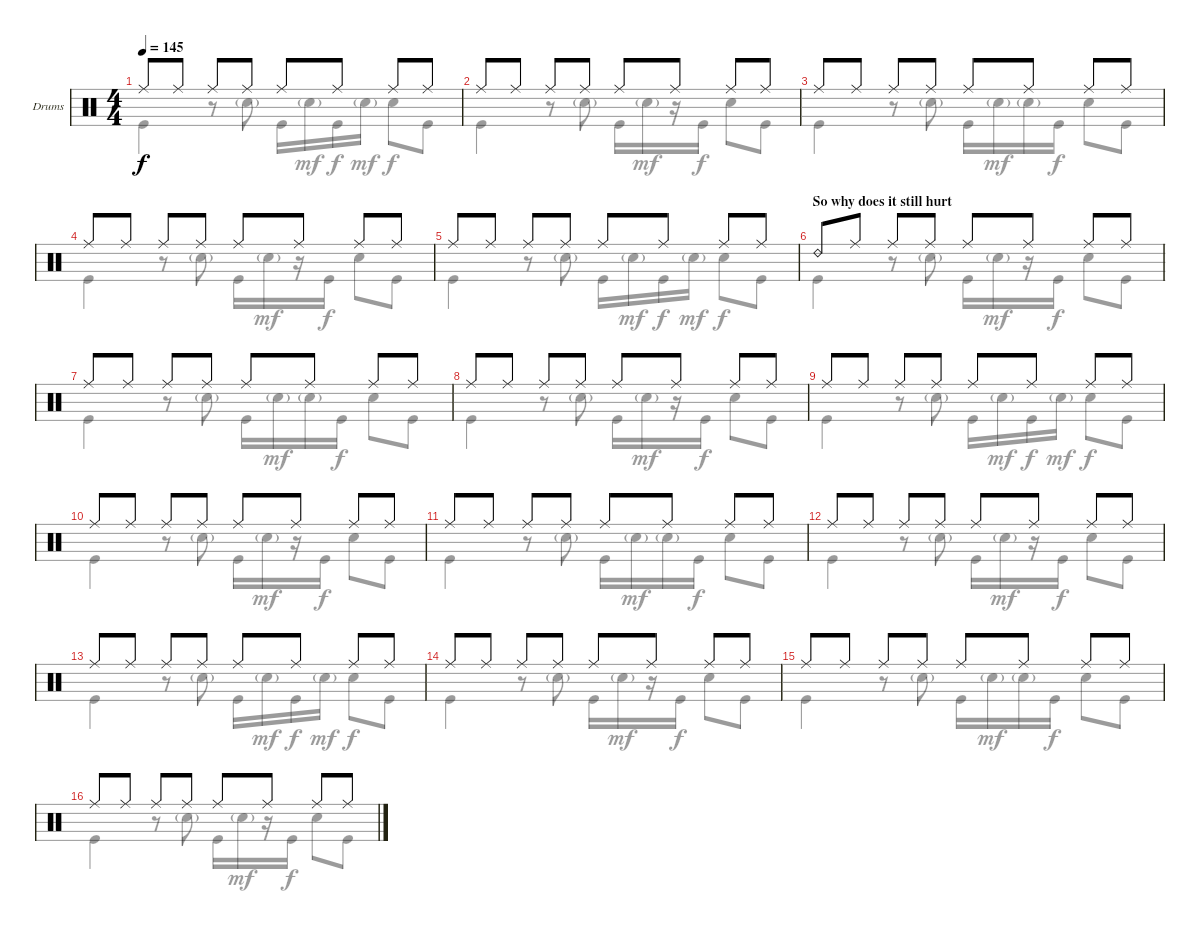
\defaultSystemsLayout 4
\bracketExtendMode groupsimilarinstruments
\firstSystemTrackNameOrientation horizontal
\otherSystemsTrackNameOrientation horizontal
\track ("Drumkit" "Drums") {instrument percussion}
\staff {score}
\articulation defaults
\voice
\ts (4 4)
\tempo 145
\clef neutral
\ks c "Ride (middle)".8{dy f} "Ride (middle)".8 "Ride (middle)".8 "Ride (middle)".8 "Ride (middle)".8 "Ride (middle)".8 "Ride (middle)".8 "Ride (middle)".8
|
"Ride (middle)".8 "Ride (middle)".8 "Ride (middle)".8 "Ride (middle)".8 "Ride (middle)".8 "Ride (middle)".8 "Ride (middle)".8 "Ride (middle)".8 |
"Ride (middle)".8 "Ride (middle)".8 "Ride (middle)".8 "Ride (middle)".8 "Ride (middle)".8 "Ride (middle)".8 "Ride (middle)".8 "Ride (middle)".8 |
"Ride (middle)".8 "Ride (middle)".8 "Ride (middle)".8 "Ride (middle)".8 "Ride (middle)".8 "Ride (middle)".8 "Ride (middle)".8 "Ride (middle)".8 |
"Ride (middle)".8 "Ride (middle)".8 "Ride (middle)".8 "Ride (middle)".8 "Ride (middle)".8 "Ride (middle)".8 "Ride (middle)".8 "Ride (middle)".8 |
\section ("" "So why does it still hurt")
"Ride (bell) 2".8 "Ride (middle)".8 "Ride (middle)".8 "Ride (middle)".8 "Ride (middle)".8 "Ride (middle)".8 "Ride (middle)".8 "Ride (middle)".8 |
"Ride (middle)".8 "Ride (middle)".8 "Ride (middle)".8 "Ride (middle)".8 "Ride (middle)".8 "Ride (middle)".8 "Ride (middle)".8 "Ride (middle)".8 |
"Ride (middle)".8 "Ride (middle)".8 "Ride (middle)".8 "Ride (middle)".8 "Ride (middle)".8 "Ride (middle)".8 "Ride (middle)".8 "Ride (middle)".8 |
"Ride (middle)".8 "Ride (middle)".8 "Ride (middle)".8 "Ride (middle)".8 "Ride (middle)".8 "Ride (middle)".8 "Ride (middle)".8 "Ride (middle)".8 |
"Ride (middle)".8 "Ride (middle)".8 "Ride (middle)".8 "Ride (middle)".8 "Ride (middle)".8 "Ride (middle)".8 "Ride (middle)".8 "Ride (middle)".8 |
"Ride (middle)".8 "Ride (middle)".8 "Ride (middle)".8 "Ride (middle)".8 "Ride (middle)".8 "Ride (middle)".8 "Ride (middle)".8 "Ride (middle)".8 |
"Ride (middle)".8 "Ride (middle)".8 "Ride (middle)".8 "Ride (middle)".8 "Ride (middle)".8 "Ride (middle)".8 "Ride (middle)".8 "Ride (middle)".8 |
"Ride (middle)".8 "Ride (middle)".8 "Ride (middle)".8 "Ride (middle)".8 "Ride (middle)".8 "Ride (middle)".8 "Ride (middle)".8 "Ride (middle)".8 |
"Ride (middle)".8 "Ride (middle)".8 "Ride (middle)".8 "Ride (middle)".8 "Ride (middle)".8 "Ride (middle)".8 "Ride (middle)".8 "Ride (middle)".8 |
"Ride (middle)".8 "Ride (middle)".8 "Ride (middle)".8 "Ride (middle)".8 "Ride (middle)".8 "Ride (middle)".8 "Ride (middle)".8 "Ride (middle)".8 |
"Ride (middle)".8 "Ride (middle)".8 "Ride (middle)".8 "Ride (middle)".8 "Ride (middle)".8 "Ride (middle)".8 "Ride (middle)".8 "Ride (middle)".8
\voice
\clef neutral
\ottava regular
\simile none
\ks c "Kick (hit)".4{dy f}
r.8 "Snare (hit) 2"{g}.8 "Kick (hit)".16 "Snare (hit) 2"{g}.16{dy mf} "Kick (hit)".16{dy f} "Snare (hit) 2"{g}.16{dy mf} "Snare (hit) 2".8{dy f} "Kick (hit)".8 |
"Kick (hit)".4 r.8 "Snare (hit) 2"{g}.8 "Kick (hit)".16 "Snare (hit) 2"{g}.16{dy mf} r.16 "Kick (hit)".16{dy f} "Snare (hit) 2".8 "Kick (hit)".8 |
"Kick (hit)".4 r.8 "Snare (hit) 2"{g}.8 "Kick (hit)".16 "Snare (hit) 2"{g}.16{dy mf} "Snare (hit) 2"{g}.16 "Kick (hit)".16{dy f} "Snare (hit) 2".8 "Kick (hit)".8 |
"Kick (hit)".4 r.8 "Snare (hit) 2"{g}.8 "Kick (hit)".16 "Snare (hit) 2"{g}.16{dy mf} r.16 "Kick (hit)".16{dy f} "Snare (hit) 2".8 "Kick (hit)".8 |
"Kick (hit)".4 r.8 "Snare (hit) 2"{g}.8 "Kick (hit)".16 "Snare (hit) 2"{g}.16{dy mf} "Kick (hit)".16{dy f} "Snare (hit) 2"{g}.16{dy mf} "Snare (hit) 2".8{dy f} "Kick (hit)".8 |
"Kick (hit)".4 r.8 "Snare (hit) 2"{g}.8 "Kick (hit)".16 "Snare (hit) 2"{g}.16{dy mf} r.16 "Kick (hit)".16{dy f} "Snare (hit) 2".8 "Kick (hit)".8 |
"Kick (hit)".4 r.8 "Snare (hit) 2"{g}.8 "Kick (hit)".16 "Snare (hit) 2"{g}.16{dy mf} "Snare (hit) 2"{g}.16 "Kick (hit)".16{dy f} "Snare (hit) 2".8 "Kick (hit)".8 |
"Kick (hit)".4 r.8 "Snare (hit) 2"{g}.8 "Kick (hit)".16 "Snare (hit) 2"{g}.16{dy mf} r.16 "Kick (hit)".16{dy f} "Snare (hit) 2".8 "Kick (hit)".8 |
"Kick (hit)".4 r.8 "Snare (hit) 2"{g}.8 "Kick (hit)".16 "Snare (hit) 2"{g}.16{dy mf} "Kick (hit)".16{dy f} "Snare (hit) 2"{g}.16{dy mf} "Snare (hit) 2".8{dy f} "Kick (hit)".8 |
"Kick (hit)".4 r.8 "Snare (hit) 2"{g}.8 "Kick (hit)".16 "Snare (hit) 2"{g}.16{dy mf} r.16 "Kick (hit)".16{dy f} "Snare (hit) 2".8 "Kick (hit)".8 |
"Kick (hit)".4 r.8 "Snare (hit) 2"{g}.8 "Kick (hit)".16 "Snare (hit) 2"{g}.16{dy mf} "Snare (hit) 2"{g}.16 "Kick (hit)".16{dy f} "Snare (hit) 2".8 "Kick (hit)".8 |
"Kick (hit)".4 r.8 "Snare (hit) 2"{g}.8 "Kick (hit)".16 "Snare (hit) 2"{g}.16{dy mf} r.16 "Kick (hit)".16{dy f} "Snare (hit) 2".8 "Kick (hit)".8 |
"Kick (hit)".4 r.8 "Snare (hit) 2"{g}.8 "Kick (hit)".16 "Snare (hit) 2"{g}.16{dy mf} "Kick (hit)".16{dy f} "Snare (hit) 2"{g}.16{dy mf} "Snare (hit) 2".8{dy f} "Kick (hit)".8 |
"Kick (hit)".4 r.8 "Snare (hit) 2"{g}.8 "Kick (hit)".16 "Snare (hit) 2"{g}.16{dy mf} r.16 "Kick (hit)".16{dy f} "Snare (hit) 2".8 "Kick (hit)".8 |
"Kick (hit)".4 r.8 "Snare (hit) 2"{g}.8 "Kick (hit)".16 "Snare (hit) 2"{g}.16{dy mf} "Snare (hit) 2"{g}.16 "Kick (hit)".16{dy f} "Snare (hit) 2".8 "Kick (hit)".8 |
"Kick (hit)".4 r.8 "Snare (hit) 2"{g}.8 "Kick (hit)".16 "Snare (hit) 2"{g}.16{dy mf} r.16 "Kick (hit)".16{dy f} "Snare (hit) 2".8 "Kick (hit)".8
